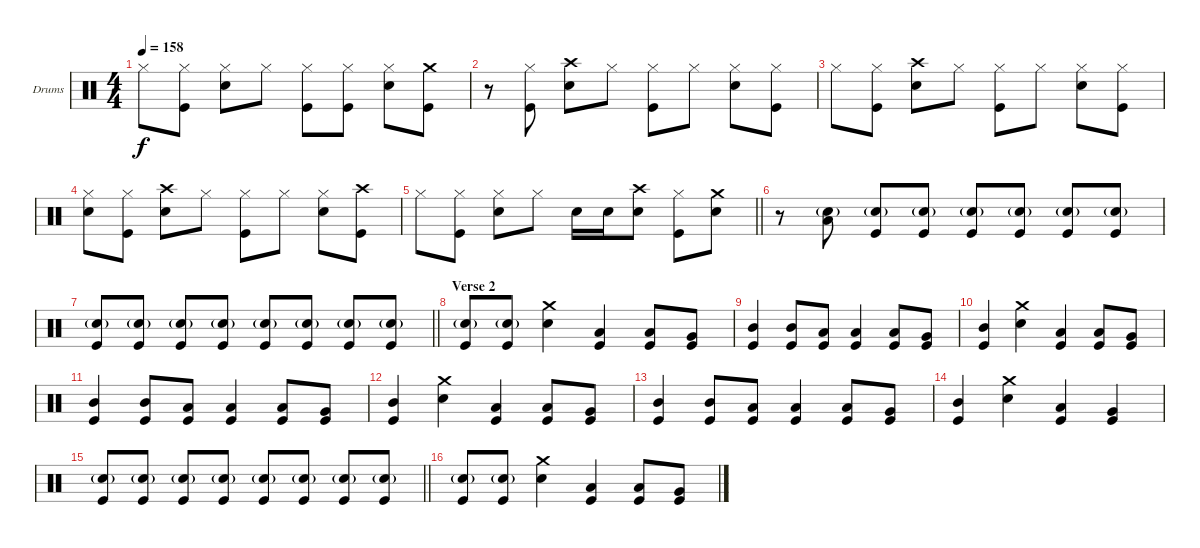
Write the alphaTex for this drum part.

\bracketExtendMode groupsimilarinstruments
\firstSystemTrackNameOrientation horizontal
\otherSystemsTrackNameOrientation horizontal
\track ("Drumkit" "Drums") {instrument percussion}
\staff {score}
\articulation defaults
\ts (4 4)
\tempo 158
\clef neutral
\ks c "Hi-Hat (closed)".8{dy f}
("Hi-Hat (closed)" "Kick (hit)").8 ("Hi-Hat (closed)" "Snare (hit) 2").8 "Hi-Hat (closed)".8 ("Hi-Hat (closed)" "Kick (hit)").8 ("Hi-Hat (closed)" "Kick (hit)").8 ("Hi-Hat (closed)" "Snare (hit) 2").8 ("Crash medium (hit)" "Kick (hit)").8 |
r.8 ("Hi-Hat (closed)" "Kick (hit)").8 ("Crash high (hit)" "Snare (hit) 2").8 "Hi-Hat (closed)".8 ("Hi-Hat (closed)" "Kick (hit)").8 "Hi-Hat (closed)".8 ("Hi-Hat (closed)" "Snare (hit) 2").8 ("Hi-Hat (closed)" "Kick (hit)").8 |
"Hi-Hat (closed)".8 ("Hi-Hat (closed)" "Kick (hit)").8 ("Crash high (hit)" "Snare (hit) 2").8 "Hi-Hat (closed)".8 ("Hi-Hat (closed)" "Kick (hit)").8 "Hi-Hat (closed)".8 ("Hi-Hat (closed)" "Snare (hit) 2").8 ("Hi-Hat (closed)" "Kick (hit)").8 |
("Hi-Hat (closed)" "Snare (hit) 2").8 ("Hi-Hat (closed)" "Kick (hit)").8 ("Crash high (hit)" "Snare (hit) 2").8 "Hi-Hat (closed)".8 ("Hi-Hat (closed)" "Kick (hit)").8 "Hi-Hat (closed)".8 ("Hi-Hat (closed)" "Snare (hit) 2").8 ("Crash high (hit)" "Kick (hit)").8 |
\barLineRight lightlight "Hi-Hat (closed)".8
("Hi-Hat (closed)" "Kick (hit)").8 ("Hi-Hat (closed)" "Snare (hit) 2").8 "Hi-Hat (closed)".8 "Snare (hit) 2".16 "Snare (hit) 2".16 ("Crash high (hit)" "Snare (hit) 2").8 ("Hi-Hat (closed)" "Kick (hit)").8 ("Crash medium (hit)" "Snare (hit) 2").8 |
\section ("" "")
r.8 ("Snare (hit) 2"{g} "Low Tom (hit)").8 ("Snare (hit) 2"{g} "Kick (hit)").8 ("Snare (hit) 2"{g} "Kick (hit)").8 ("Snare (hit) 2"{g} "Kick (hit)").8 ("Snare (hit) 2"{g} "Kick (hit)").8 ("Snare (hit) 2"{g} "Kick (hit)").8 ("Snare (hit) 2"{g} "Kick (hit)").8 |
\barLineRight lightlight
("Snare (hit) 2"{g} "Kick (hit)").8 ("Snare (hit) 2"{g} "Kick (hit)").8 ("Snare (hit) 2"{g} "Kick (hit)").8 ("Snare (hit) 2"{g} "Kick (hit)").8 ("Snare (hit) 2"{g} "Kick (hit)").8 ("Snare (hit) 2"{g} "Kick (hit)").8 ("Snare (hit) 2"{g} "Kick (hit)").8 ("Snare (hit) 2"{g} "Kick (hit)").8 |
\section ("" "Verse 2")
("Snare (hit) 2"{g} "Kick (hit)").8 ("Snare (hit) 2"{g} "Kick (hit)").8 ("Crash medium (hit)" "Snare (hit) 2").4 ("Kick (hit)" "Low Tom (hit)").4 ("Kick (hit)" "Low Tom (hit)").8 ("Kick (hit)" "Very Low Tom (hit)").8 |
("Kick (hit)" "Mid Tom (hit)").4 ("Kick (hit)" "Mid Tom (hit)").8 ("Kick (hit)" "Low Tom (hit)").8 ("Kick (hit)" "Low Tom (hit)").4 ("Kick (hit)" "Low Tom (hit)").8 ("Kick (hit)" "Very Low Tom (hit)").8 |
("Kick (hit)" "Mid Tom (hit)").4 ("Crash medium (hit)" "Snare (hit) 2").4 ("Kick (hit)" "Low Tom (hit)").4 ("Kick (hit)" "Low Tom (hit)").8 ("Kick (hit)" "Very Low Tom (hit)").8 |
("Kick (hit)" "Mid Tom (hit)").4 ("Kick (hit)" "Mid Tom (hit)").8 ("Kick (hit)" "Low Tom (hit)").8 ("Kick (hit)" "Low Tom (hit)").4 ("Kick (hit)" "Low Tom (hit)").8 ("Kick (hit)" "Very Low Tom (hit)").8 |
("Kick (hit)" "Mid Tom (hit)").4 ("Crash medium (hit)" "Snare (hit) 2").4 ("Kick (hit)" "Low Tom (hit)").4 ("Kick (hit)" "Low Tom (hit)").8 ("Kick (hit)" "Very Low Tom (hit)").8 |
("Kick (hit)" "Mid Tom (hit)").4 ("Kick (hit)" "Mid Tom (hit)").8 ("Kick (hit)" "Low Tom (hit)").8 ("Kick (hit)" "Low Tom (hit)").4 ("Kick (hit)" "Low Tom (hit)").8 ("Kick (hit)" "Very Low Tom (hit)").8 |
("Kick (hit)" "Mid Tom (hit)").4 ("Crash medium (hit)" "Snare (hit) 2").4 ("Kick (hit)" "Low Tom (hit)").4 ("Kick (hit)" "Very Low Tom (hit)").4 |
\barLineRight lightlight
("Snare (hit) 2"{g} "Kick (hit)").8 ("Snare (hit) 2"{g} "Kick (hit)").8 ("Snare (hit) 2"{g} "Kick (hit)").8 ("Snare (hit) 2"{g} "Kick (hit)").8 ("Snare (hit) 2"{g} "Kick (hit)").8 ("Snare (hit) 2"{g} "Kick (hit)").8 ("Snare (hit) 2"{g} "Kick (hit)").8 ("Snare (hit) 2"{g} "Kick (hit)").8 |
\section ("" "")
("Snare (hit) 2"{g} "Kick (hit)").8 ("Snare (hit) 2"{g} "Kick (hit)").8 ("Crash medium (hit)" "Snare (hit) 2").4 ("Kick (hit)" "Low Tom (hit)").4 ("Kick (hit)" "Low Tom (hit)").8 ("Kick (hit)" "Very Low Tom (hit)").8
